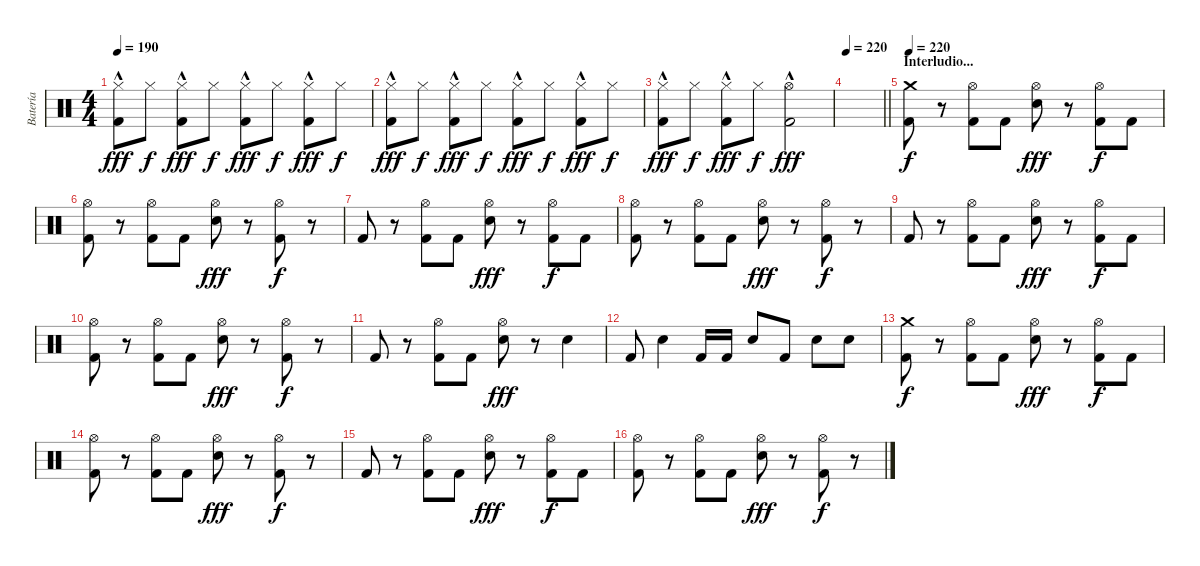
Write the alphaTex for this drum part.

\track ("Batería" "Batería") {instrument percussion}
\staff {score}
\articulation defaults
\ts (4 4)
\tempo 190
\clef neutral
\ks c
("Hi-Hat (closed)" "Kick (hit) 2"{hac}).8{dy fff} "Hi-Hat (closed)".8{dy f} ("Hi-Hat (closed)" "Kick (hit) 2"{hac}).8{dy fff} "Hi-Hat (closed)".8{dy f} ("Hi-Hat (closed)" "Kick (hit) 2"{hac}).8{dy fff} "Hi-Hat (closed)".8{dy f} ("Hi-Hat (closed)" "Kick (hit) 2"{hac}).8{dy fff} "Hi-Hat (closed)".8{dy f} |
("Hi-Hat (closed)" "Kick (hit) 2"{hac}).8{dy fff} "Hi-Hat (closed)".8{dy f} ("Hi-Hat (closed)" "Kick (hit) 2"{hac}).8{dy fff} "Hi-Hat (closed)".8{dy f} ("Hi-Hat (closed)" "Kick (hit) 2"{hac}).8{dy fff} "Hi-Hat (closed)".8{dy f} ("Hi-Hat (closed)" "Kick (hit) 2"{hac}).8{dy fff} "Hi-Hat (closed)".8{dy f} |
("Hi-Hat (closed)" "Kick (hit) 2"{hac}).8{dy fff} "Hi-Hat (closed)".8{dy f} ("Hi-Hat (closed)" "Kick (hit) 2"{hac}).8{dy fff} "Hi-Hat (closed)".8{dy f} ("Hi-Hat (open)" "Kick (hit) 2"{hac}).2{dy fff} |
\tempo 220
\barLineRight lightlight
|
\section ("" "Interludio...")
\tempo 220
("Crash medium (hit)" "Kick (hit) 2").8{dy f} r.8 ("Hi-Hat (open)" "Kick (hit) 2").8 "Kick (hit) 2".8 ("Hi-Hat (open)" "Snare (hit) 2").8{dy fff} r.8 ("Hi-Hat (open)" "Kick (hit) 2").8{dy f} "Kick (hit) 2".8 |
("Hi-Hat (open)" "Kick (hit) 2").8 r.8 ("Hi-Hat (open)" "Kick (hit) 2").8 "Kick (hit) 2".8 ("Hi-Hat (open)" "Snare (hit) 2").8{dy fff} r.8 ("Hi-Hat (open)" "Kick (hit) 2").8{dy f} r.8 |
"Kick (hit) 2".8 r.8 ("Hi-Hat (open)" "Kick (hit) 2").8 "Kick (hit) 2".8 ("Hi-Hat (open)" "Snare (hit) 2").8{dy fff} r.8 ("Hi-Hat (open)" "Kick (hit) 2").8{dy f} "Kick (hit) 2".8 |
("Hi-Hat (open)" "Kick (hit) 2").8 r.8 ("Hi-Hat (open)" "Kick (hit) 2").8 "Kick (hit) 2".8 ("Hi-Hat (open)" "Snare (hit) 2").8{dy fff} r.8 ("Hi-Hat (open)" "Kick (hit) 2").8{dy f} r.8 |
"Kick (hit) 2".8 r.8 ("Hi-Hat (open)" "Kick (hit) 2").8 "Kick (hit) 2".8 ("Hi-Hat (open)" "Snare (hit) 2").8{dy fff} r.8 ("Hi-Hat (open)" "Kick (hit) 2").8{dy f} "Kick (hit) 2".8 |
("Hi-Hat (open)" "Kick (hit) 2").8 r.8 ("Hi-Hat (open)" "Kick (hit) 2").8 "Kick (hit) 2".8 ("Hi-Hat (open)" "Snare (hit) 2").8{dy fff} r.8 ("Hi-Hat (open)" "Kick (hit) 2").8{dy f} r.8 |
"Kick (hit) 2".8 r.8 ("Hi-Hat (open)" "Kick (hit) 2").8 "Kick (hit) 2".8 ("Hi-Hat (open)" "Snare (hit) 2").8{dy fff} r.8 "Snare (hit) 2".4 |
"Kick (hit) 2".8 "Snare (hit) 2".4 "Kick (hit) 2".16 "Kick (hit) 2".16 "Snare (hit) 2".8 "Kick (hit) 2".8 "Snare (hit) 2".8 "Snare (hit) 2".8 |
("Crash medium (hit)" "Kick (hit) 2").8{dy f} r.8 ("Hi-Hat (open)" "Kick (hit) 2").8 "Kick (hit) 2".8 ("Hi-Hat (open)" "Snare (hit) 2").8{dy fff} r.8 ("Hi-Hat (open)" "Kick (hit) 2").8{dy f} "Kick (hit) 2".8 |
("Hi-Hat (open)" "Kick (hit) 2").8 r.8 ("Hi-Hat (open)" "Kick (hit) 2").8 "Kick (hit) 2".8 ("Hi-Hat (open)" "Snare (hit) 2").8{dy fff} r.8 ("Hi-Hat (open)" "Kick (hit) 2").8{dy f} r.8 |
"Kick (hit) 2".8 r.8 ("Hi-Hat (open)" "Kick (hit) 2").8 "Kick (hit) 2".8 ("Hi-Hat (open)" "Snare (hit) 2").8{dy fff} r.8 ("Hi-Hat (open)" "Kick (hit) 2").8{dy f} "Kick (hit) 2".8 |
("Hi-Hat (open)" "Kick (hit) 2").8 r.8 ("Hi-Hat (open)" "Kick (hit) 2").8 "Kick (hit) 2".8 ("Hi-Hat (open)" "Snare (hit) 2").8{dy fff} r.8 ("Hi-Hat (open)" "Kick (hit) 2").8{dy f} r.8
